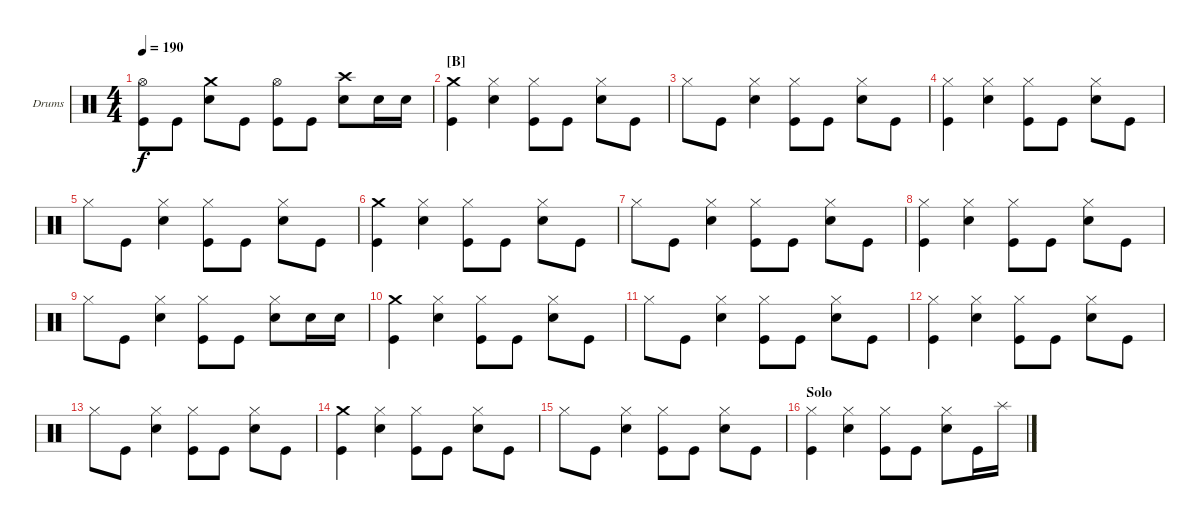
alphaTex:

\bracketExtendMode groupsimilarinstruments
\firstSystemTrackNameOrientation horizontal
\otherSystemsTrackNameOrientation horizontal
\track ("Drums" "Drums") {instrument percussion}
\staff {score}
\articulation defaults
\ts (4 4)
\tempo 190
\clef neutral
\ks c
("Kick (hit)" "Hi-Hat (open)").8{dy f} "Kick (hit)".8 ("Snare (hit) 2" "Crash medium (hit)").8 "Kick (hit)".8 ("Kick (hit)" "Hi-Hat (open)").8 "Kick (hit)".8 ("Snare (hit) 2" "Crash high (hit)").8 "Snare (hit) 2".16 "Snare (hit) 2".16 |
\section ("B" "")
("Crash medium (hit)" "Kick (hit)").4 ("Hi-Hat (closed)" "Snare (hit) 2").4 ("Hi-Hat (closed)" "Kick (hit)").8 "Kick (hit)".8 ("Hi-Hat (closed)" "Snare (hit) 2").8 "Kick (hit)".8 |
"Hi-Hat (closed)".8 "Kick (hit)".8 ("Hi-Hat (closed)" "Snare (hit) 2").4 ("Hi-Hat (closed)" "Kick (hit)").8 "Kick (hit)".8 ("Hi-Hat (closed)" "Snare (hit) 2").8 "Kick (hit)".8 |
("Kick (hit)" "Hi-Hat (closed)").4 ("Hi-Hat (closed)" "Snare (hit) 2").4 ("Hi-Hat (closed)" "Kick (hit)").8 "Kick (hit)".8 ("Hi-Hat (closed)" "Snare (hit) 2").8 "Kick (hit)".8 |
"Hi-Hat (closed)".8 "Kick (hit)".8 ("Hi-Hat (closed)" "Snare (hit) 2").4 ("Hi-Hat (closed)" "Kick (hit)").8 "Kick (hit)".8 ("Hi-Hat (closed)" "Snare (hit) 2").8 "Kick (hit)".8 |
("Crash medium (hit)" "Kick (hit)").4 ("Hi-Hat (closed)" "Snare (hit) 2").4 ("Hi-Hat (closed)" "Kick (hit)").8 "Kick (hit)".8 ("Hi-Hat (closed)" "Snare (hit) 2").8 "Kick (hit)".8 |
"Hi-Hat (closed)".8 "Kick (hit)".8 ("Hi-Hat (closed)" "Snare (hit) 2").4 ("Hi-Hat (closed)" "Kick (hit)").8 "Kick (hit)".8 ("Hi-Hat (closed)" "Snare (hit) 2").8 "Kick (hit)".8 |
("Kick (hit)" "Hi-Hat (closed)").4 ("Hi-Hat (closed)" "Snare (hit) 2").4 ("Hi-Hat (closed)" "Kick (hit)").8 "Kick (hit)".8 ("Hi-Hat (closed)" "Snare (hit) 2").8 "Kick (hit)".8 |
"Hi-Hat (closed)".8 "Kick (hit)".8 ("Hi-Hat (closed)" "Snare (hit) 2").4 ("Hi-Hat (closed)" "Kick (hit)").8 "Kick (hit)".8 ("Hi-Hat (closed)" "Snare (hit) 2").8 "Snare (hit) 2".16 "Snare (hit) 2".16 |
("Crash medium (hit)" "Kick (hit)").4 ("Hi-Hat (closed)" "Snare (hit) 2").4 ("Hi-Hat (closed)" "Kick (hit)").8 "Kick (hit)".8 ("Hi-Hat (closed)" "Snare (hit) 2").8 "Kick (hit)".8 |
"Hi-Hat (closed)".8 "Kick (hit)".8 ("Hi-Hat (closed)" "Snare (hit) 2").4 ("Hi-Hat (closed)" "Kick (hit)").8 "Kick (hit)".8 ("Hi-Hat (closed)" "Snare (hit) 2").8 "Kick (hit)".8 |
("Kick (hit)" "Hi-Hat (closed)").4 ("Hi-Hat (closed)" "Snare (hit) 2").4 ("Hi-Hat (closed)" "Kick (hit)").8 "Kick (hit)".8 ("Hi-Hat (closed)" "Snare (hit) 2").8 "Kick (hit)".8 |
"Hi-Hat (closed)".8 "Kick (hit)".8 ("Hi-Hat (closed)" "Snare (hit) 2").4 ("Hi-Hat (closed)" "Kick (hit)").8 "Kick (hit)".8 ("Hi-Hat (closed)" "Snare (hit) 2").8 "Kick (hit)".8 |
("Crash medium (hit)" "Kick (hit)").4 ("Hi-Hat (closed)" "Snare (hit) 2").4 ("Hi-Hat (closed)" "Kick (hit)").8 "Kick (hit)".8 ("Hi-Hat (closed)" "Snare (hit) 2").8 "Kick (hit)".8 |
"Hi-Hat (closed)".8 "Kick (hit)".8 ("Hi-Hat (closed)" "Snare (hit) 2").4 ("Hi-Hat (closed)" "Kick (hit)").8 "Kick (hit)".8 ("Hi-Hat (closed)" "Snare (hit) 2").8 "Kick (hit)".8 |
\section ("" "Solo")
("Kick (hit)" "Hi-Hat (closed)").4 ("Hi-Hat (closed)" "Snare (hit) 2").4 ("Hi-Hat (closed)" "Kick (hit)").8 "Kick (hit)".8 ("Hi-Hat (closed)" "Snare (hit) 2").8 "Kick (hit)".16 "Splash (hit)".16
